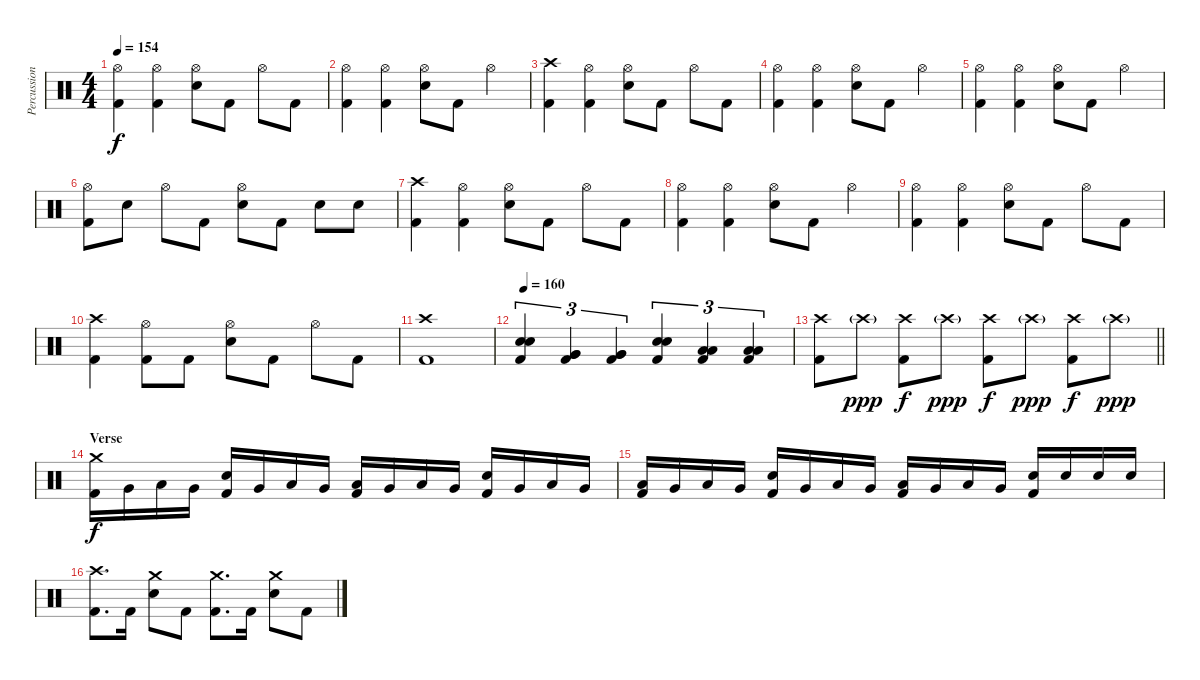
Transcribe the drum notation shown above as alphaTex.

\track ("Percussion" "Percussion") {instrument percussion}
\staff {score}
\articulation defaults
\ts (4 4)
\tempo 154
\clef neutral
\ks c
("Hi-Hat (open)" "Kick (hit) 2").4{dy f} ("Hi-Hat (open)" "Kick (hit) 2").4 ("Hi-Hat (open)" "Electric Snare (hit)").8 "Kick (hit) 2".8 "Hi-Hat (open)".8 "Kick (hit) 2".8 |
("Hi-Hat (open)" "Kick (hit) 2").4 ("Hi-Hat (open)" "Kick (hit) 2").4 ("Hi-Hat (open)" "Electric Snare (hit)").8 "Kick (hit) 2".8 "Hi-Hat (open)".4 |
("Crash high (hit)" "Kick (hit) 2").4 ("Hi-Hat (open)" "Kick (hit) 2").4 ("Hi-Hat (open)" "Electric Snare (hit)").8 "Kick (hit) 2".8 "Hi-Hat (open)".8 "Kick (hit) 2".8 |
("Hi-Hat (open)" "Kick (hit) 2").4 ("Hi-Hat (open)" "Kick (hit) 2").4 ("Hi-Hat (open)" "Electric Snare (hit)").8 "Kick (hit) 2".8 "Hi-Hat (open)".4 |
("Hi-Hat (open)" "Kick (hit) 2").4 ("Hi-Hat (open)" "Kick (hit) 2").4 ("Hi-Hat (open)" "Electric Snare (hit)").8 "Kick (hit) 2".8 "Hi-Hat (open)".4 |
("Hi-Hat (open)" "Kick (hit) 2").8 "Electric Snare (hit)".8 "Hi-Hat (open)".8 "Kick (hit) 2".8 ("Hi-Hat (open)" "Electric Snare (hit)").8 "Kick (hit) 2".8 "Electric Snare (hit)".8 "Electric Snare (hit)".8 |
("Crash high (hit)" "Kick (hit) 2").4 ("Hi-Hat (open)" "Kick (hit) 2").4 ("Hi-Hat (open)" "Electric Snare (hit)").8 "Kick (hit) 2".8 "Hi-Hat (open)".8 "Kick (hit) 2".8 |
("Hi-Hat (open)" "Kick (hit) 2").4 ("Hi-Hat (open)" "Kick (hit) 2").4 ("Hi-Hat (open)" "Electric Snare (hit)").8 "Kick (hit) 2".8 "Hi-Hat (open)".4 |
("Hi-Hat (open)" "Kick (hit) 2").4 ("Hi-Hat (open)" "Kick (hit) 2").4 ("Hi-Hat (open)" "Electric Snare (hit)").8 "Kick (hit) 2".8 "Hi-Hat (open)".8 "Kick (hit) 2".8 |
("Crash high (hit)" "Kick (hit) 2").4 ("Hi-Hat (open)" "Kick (hit) 2").8 "Kick (hit) 2".8 ("Hi-Hat (open)" "Electric Snare (hit)").8 "Kick (hit) 2".8 "Hi-Hat (open)".8 "Kick (hit) 2".8 |
("Crash high (hit)" "Kick (hit) 2").1 |
\tempo 160
("Electric Snare (hit)" "Electric Snare (hit)" "Kick (hit) 2").4{tu (3 2)} ("Very Low Tom (hit)" "Very Low Tom (hit)" "Kick (hit) 2").4{tu (3 2)} ("Very Low Tom (hit)" "Very Low Tom (hit)" "Kick (hit) 2").4{tu (3 2)} ("Electric Snare (hit)" "Electric Snare (hit)" "Kick (hit) 2").4{tu (3 2)} ("Low Floor Tom (hit)" "Low Floor Tom (hit)" "Kick (hit) 2").4{tu (3 2)} ("Low Floor Tom (hit)" "Low Floor Tom (hit)" "Kick (hit) 2").4{tu (3 2)} |
\barLineRight lightlight
("Crash high (hit)" "Kick (hit) 2").8 "Crash high (hit)"{g}.8{dy ppp} ("Crash high (hit)" "Kick (hit) 2").8{dy f} "Crash high (hit)"{g}.8{dy ppp} ("Crash high (hit)" "Kick (hit) 2").8{dy f} "Crash high (hit)"{g}.8{dy ppp} ("Crash high (hit)" "Kick (hit) 2").8{dy f} "Crash high (hit)"{g}.8{dy ppp} |
\section ("" "Verse")
("Crash medium (hit)" "Kick (hit) 2").16{dy f} "Very Low Tom (hit)".16 "Low Floor Tom (hit)".16 "Very Low Tom (hit)".16 ("Electric Snare (hit)" "Kick (hit) 2").16 "Very Low Tom (hit)".16 "Low Floor Tom (hit)".16 "Very Low Tom (hit)".16 ("Low Floor Tom (hit)" "Kick (hit) 2").16 "Very Low Tom (hit)".16 "Low Floor Tom (hit)".16 "Very Low Tom (hit)".16 ("Electric Snare (hit)" "Kick (hit) 2").16 "Very Low Tom (hit)".16 "Low Floor Tom (hit)".16 "Very Low Tom (hit)".16 |
("Low Floor Tom (hit)" "Kick (hit) 2").16 "Very Low Tom (hit)".16 "Low Floor Tom (hit)".16 "Very Low Tom (hit)".16 ("Electric Snare (hit)" "Kick (hit) 2").16 "Very Low Tom (hit)".16 "Low Floor Tom (hit)".16 "Very Low Tom (hit)".16 ("Low Floor Tom (hit)" "Kick (hit) 2").16 "Very Low Tom (hit)".16 "Low Floor Tom (hit)".16 "Very Low Tom (hit)".16 ("Electric Snare (hit)" "Kick (hit) 2").16 "Electric Snare (hit)".16 "Electric Snare (hit)".16 "Electric Snare (hit)".16 |
("Crash high (hit)" "Kick (hit) 2").8{d} "Kick (hit) 2".16 ("Crash medium (hit)" "Electric Snare (hit)").8 "Kick (hit) 2".8 ("Crash medium (hit)" "Kick (hit) 2").8{d} "Kick (hit) 2".16 ("Crash medium (hit)" "Electric Snare (hit)").8 "Kick (hit) 2".8
